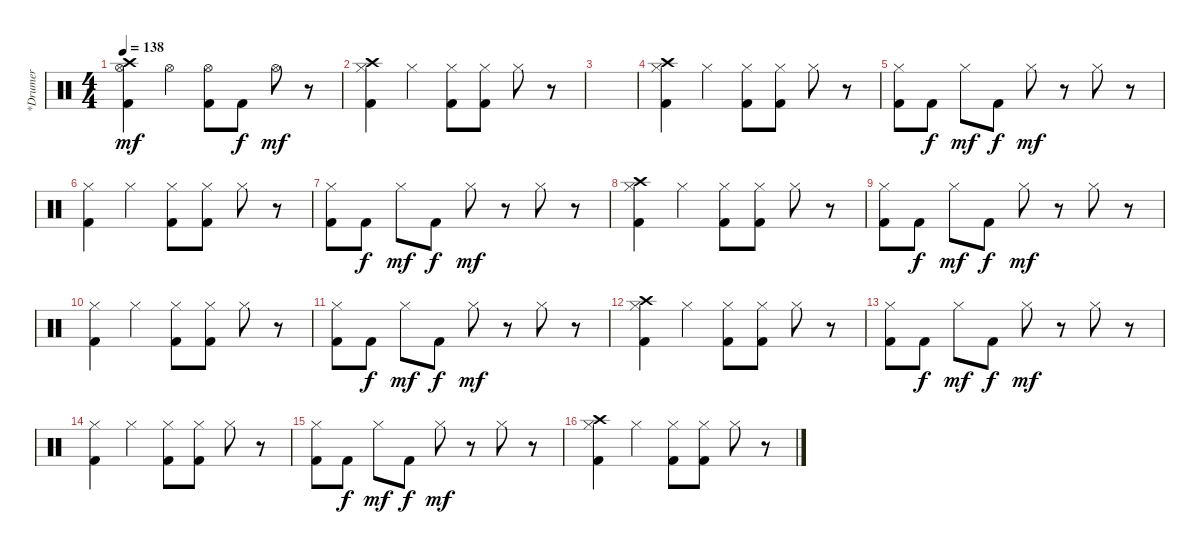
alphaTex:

\track ("*Drumer" "*Drumer") {instrument percussion}
\staff {score}
\articulation defaults
\ts (4 4)
\tempo 138
\clef neutral
\ks c
("Crash high (hit)" "Hi-Hat (open)" "Kick (hit) 2").4{dy mf} "Hi-Hat (open)".4 ("Hi-Hat (open)" "Kick (hit) 2").8 "Kick (hit) 2".8{dy f} "Hi-Hat (open)".8{dy mf} r.8 |
("Crash high (hit)" "Hi-Hat (closed)" "Kick (hit) 2").4 "Hi-Hat (closed)".4 ("Hi-Hat (closed)" "Kick (hit) 2").8 ("Hi-Hat (closed)" "Kick (hit) 2").8 "Hi-Hat (closed)".8 r.8 |
|
("Crash high (hit)" "Hi-Hat (closed)" "Kick (hit) 2").4 "Hi-Hat (closed)".4 ("Hi-Hat (closed)" "Kick (hit) 2").8 ("Hi-Hat (closed)" "Kick (hit) 2").8 "Hi-Hat (closed)".8 r.8 |
("Hi-Hat (closed)" "Kick (hit) 2").8 "Kick (hit) 2".8{dy f} "Hi-Hat (closed)".8{dy mf} "Kick (hit) 2".8{dy f} "Hi-Hat (closed)".8{dy mf} r.8 "Hi-Hat (closed)".8 r.8 |
("Hi-Hat (closed)" "Kick (hit) 2").4 "Hi-Hat (closed)".4 ("Hi-Hat (closed)" "Kick (hit) 2").8 ("Hi-Hat (closed)" "Kick (hit) 2").8 "Hi-Hat (closed)".8 r.8 |
("Hi-Hat (closed)" "Kick (hit) 2").8 "Kick (hit) 2".8{dy f} "Hi-Hat (closed)".8{dy mf} "Kick (hit) 2".8{dy f} "Hi-Hat (closed)".8{dy mf} r.8 "Hi-Hat (closed)".8 r.8 |
("Crash high (hit)" "Hi-Hat (closed)" "Kick (hit) 2").4 "Hi-Hat (closed)".4 ("Hi-Hat (closed)" "Kick (hit) 2").8 ("Hi-Hat (closed)" "Kick (hit) 2").8 "Hi-Hat (closed)".8 r.8 |
("Hi-Hat (closed)" "Kick (hit) 2").8 "Kick (hit) 2".8{dy f} "Hi-Hat (closed)".8{dy mf} "Kick (hit) 2".8{dy f} "Hi-Hat (closed)".8{dy mf} r.8 "Hi-Hat (closed)".8 r.8 |
("Hi-Hat (closed)" "Kick (hit) 2").4 "Hi-Hat (closed)".4 ("Hi-Hat (closed)" "Kick (hit) 2").8 ("Hi-Hat (closed)" "Kick (hit) 2").8 "Hi-Hat (closed)".8 r.8 |
("Hi-Hat (closed)" "Kick (hit) 2").8 "Kick (hit) 2".8{dy f} "Hi-Hat (closed)".8{dy mf} "Kick (hit) 2".8{dy f} "Hi-Hat (closed)".8{dy mf} r.8 "Hi-Hat (closed)".8 r.8 |
("Crash high (hit)" "Hi-Hat (closed)" "Kick (hit) 2").4 "Hi-Hat (closed)".4 ("Hi-Hat (closed)" "Kick (hit) 2").8 ("Hi-Hat (closed)" "Kick (hit) 2").8 "Hi-Hat (closed)".8 r.8 |
("Hi-Hat (closed)" "Kick (hit) 2").8 "Kick (hit) 2".8{dy f} "Hi-Hat (closed)".8{dy mf} "Kick (hit) 2".8{dy f} "Hi-Hat (closed)".8{dy mf} r.8 "Hi-Hat (closed)".8 r.8 |
("Hi-Hat (closed)" "Kick (hit) 2").4 "Hi-Hat (closed)".4 ("Hi-Hat (closed)" "Kick (hit) 2").8 ("Hi-Hat (closed)" "Kick (hit) 2").8 "Hi-Hat (closed)".8 r.8 |
("Hi-Hat (closed)" "Kick (hit) 2").8 "Kick (hit) 2".8{dy f} "Hi-Hat (closed)".8{dy mf} "Kick (hit) 2".8{dy f} "Hi-Hat (closed)".8{dy mf} r.8 "Hi-Hat (closed)".8 r.8 |
("Crash high (hit)" "Hi-Hat (closed)" "Kick (hit) 2").4 "Hi-Hat (closed)".4 ("Hi-Hat (closed)" "Kick (hit) 2").8 ("Hi-Hat (closed)" "Kick (hit) 2").8 "Hi-Hat (closed)".8 r.8
